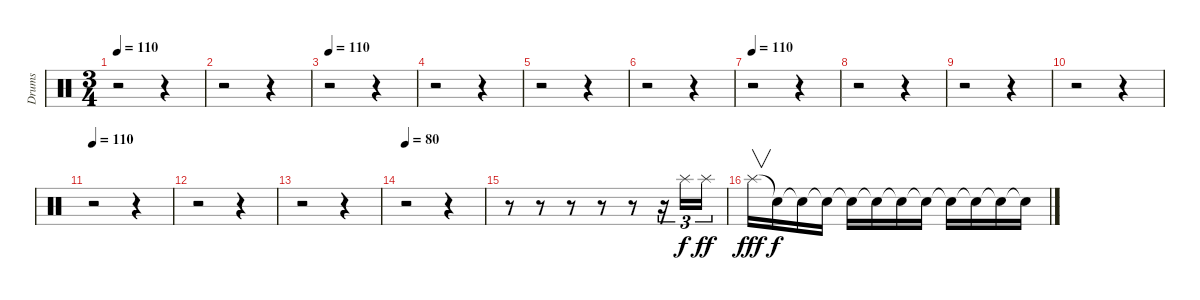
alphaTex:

\track ("Drums" "Drums") {instrument percussion}
\staff {score}
\articulation defaults
\ts (3 4)
\tempo 110
\clef neutral
\ks c
r.2{dy f} r.4 |
r.2 r.4 |
\tempo 110
r.2 r.4 |
r.2 r.4 |
r.2 r.4 |
r.2 r.4 |
\tempo 110
r.2 r.4 |
r.2 r.4 |
r.2 r.4 |
r.2 r.4 |
\tempo 110
r.2 r.4 |
r.2 r.4 |
r.2 r.4 |
\tempo 80
r.2 r.4 |
r.8 r.8 r.8 r.8 r.8 r.16{tu (3 2)} "Splash (hit)".16{tu (3 2)} "Splash (hit)".16{tu (3 2) dy ff} |
"Splash (hit)".16{v dy fff} "Snare (hit)"{t}.16{dy f} "Snare (hit)"{t}.16 "Snare (hit)"{t}.16 "Snare (hit)"{t}.16 "Snare (hit)"{t}.16 "Snare (hit)"{t}.16 "Snare (hit)"{t}.16 "Snare (hit)"{t}.16 "Snare (hit)"{t}.16 "Snare (hit)"{t}.16 "Snare (hit)"{t}.16
